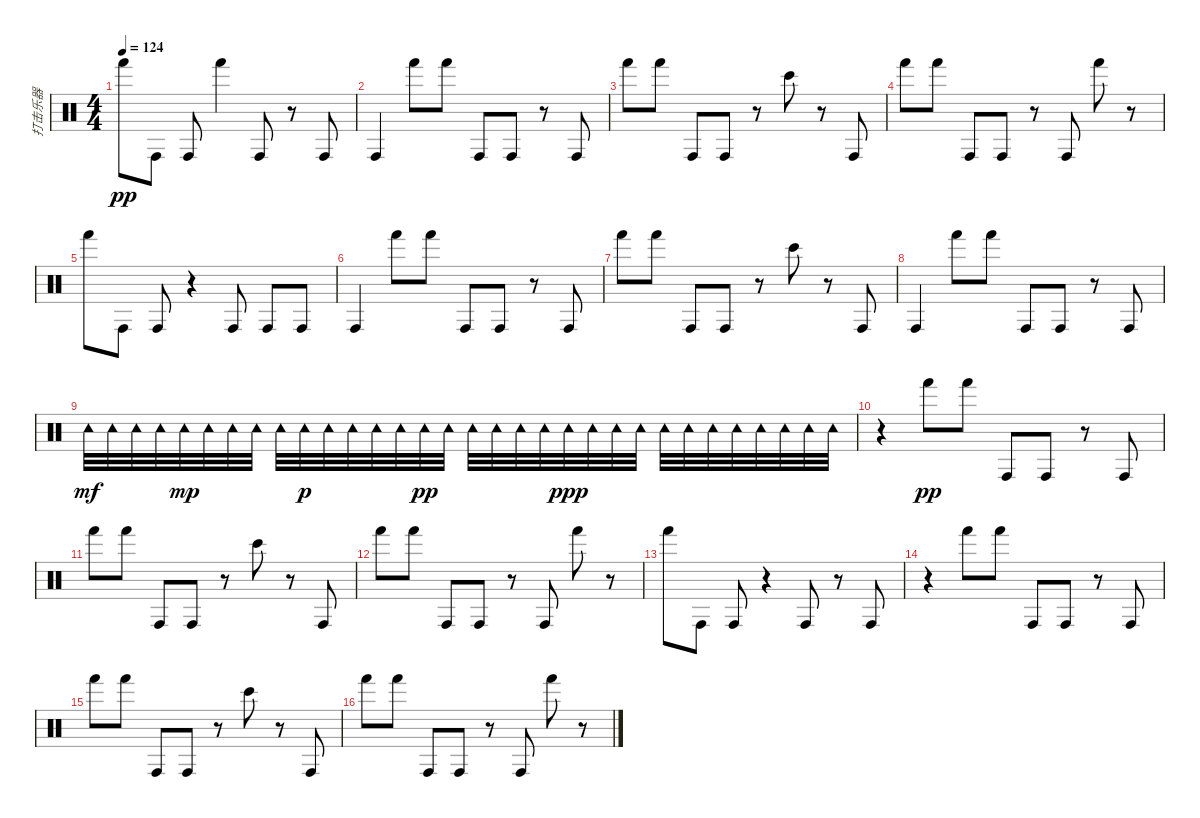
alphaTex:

\track ("打击乐器" "打击乐器") {instrument percussion}
\staff {score}
\articulation defaults
\ts (4 4)
\tempo 124
\clef neutral
\ks c "Hand (hit)".8{dy pp} "Conga high (hit)".8 "Conga high (hit)".8 "Hand (hit)".4 "Conga high (hit)".8
r.8 "Conga high (hit)".8 |
"Conga high (hit)".4 "Hand (hit)".8 "Hand (hit)".8 "Conga high (hit)".8 "Conga high (hit)".8 r.8 "Conga high (hit)".8 |
"Hand (hit)".8 "Hand (hit)".8 "Conga high (hit)".8 "Conga high (hit)".8 r.8 "Bongo High (hit)".8 r.8 "Conga high (hit)".8 |
"Hand (hit)".8 "Hand (hit)".8 "Conga high (hit)".8 "Conga high (hit)".8 r.8 "Conga high (hit)".8 "Hand (hit)".8 r.8 |
"Hand (hit)".8 "Conga high (hit)".8 "Conga high (hit)".8 r.4 "Conga high (hit)".8 "Conga high (hit)".8 "Conga high (hit)".8 |
"Conga high (hit)".4 "Hand (hit)".8 "Hand (hit)".8 "Conga high (hit)".8 "Conga high (hit)".8 r.8 "Conga high (hit)".8 |
"Hand (hit)".8 "Hand (hit)".8 "Conga high (hit)".8 "Conga high (hit)".8 r.8 "Bongo High (hit)".8 r.8 "Conga high (hit)".8 |
"Conga high (hit)".4 "Hand (hit)".8 "Hand (hit)".8 "Conga high (hit)".8 "Conga high (hit)".8 r.8 "Conga high (hit)".8 |
"Tambourine (hit)".32{dy mf balance 0} "Tambourine (hit)".32 "Tambourine (hit)".32 "Tambourine (hit)".32 "Tambourine (hit)".32{dy mp} "Tambourine (hit)".32 "Tambourine (hit)".32{balance 12} "Tambourine (hit)".32 "Tambourine (hit)".32 "Tambourine (hit)".32{dy p} "Tambourine (hit)".32 "Tambourine (hit)".32 "Tambourine (hit)".32 "Tambourine (hit)".32 "Tambourine (hit)".32{dy pp} "Tambourine (hit)".32 "Tambourine (hit)".32 "Tambourine (hit)".32 "Tambourine (hit)".32 "Tambourine (hit)".32 "Tambourine (hit)".32{dy ppp} "Tambourine (hit)".32 "Tambourine (hit)".32 "Tambourine (hit)".32 "Tambourine (hit)".32 "Tambourine (hit)".32 "Tambourine (hit)".32 "Tambourine (hit)".32 "Tambourine (hit)".32 "Tambourine (hit)".32 "Tambourine (hit)".32 "Tambourine (hit)".32 |
r.4{balance 8} "Hand (hit)".8{dy pp} "Hand (hit)".8 "Conga high (hit)".8 "Conga high (hit)".8 r.8 "Conga high (hit)".8 |
"Hand (hit)".8 "Hand (hit)".8 "Conga high (hit)".8 "Conga high (hit)".8 r.8 "Bongo High (hit)".8 r.8 "Conga high (hit)".8 |
"Hand (hit)".8 "Hand (hit)".8 "Conga high (hit)".8 "Conga high (hit)".8 r.8 "Conga high (hit)".8 "Hand (hit)".8 r.8 |
"Hand (hit)".8 "Conga high (hit)".8 "Conga high (hit)".8 r.4 "Conga high (hit)".8 r.8 "Conga high (hit)".8 |
r.4 "Hand (hit)".8 "Hand (hit)".8 "Conga high (hit)".8 "Conga high (hit)".8 r.8 "Conga high (hit)".8 |
"Hand (hit)".8 "Hand (hit)".8 "Conga high (hit)".8 "Conga high (hit)".8 r.8 "Bongo High (hit)".8 r.8 "Conga high (hit)".8 |
"Hand (hit)".8 "Hand (hit)".8 "Conga high (hit)".8 "Conga high (hit)".8 r.8 "Conga high (hit)".8 "Hand (hit)".8 r.8
